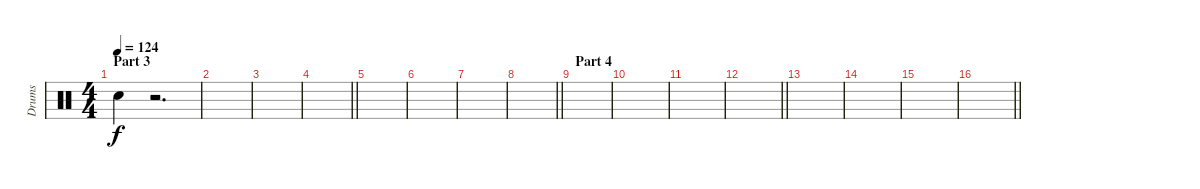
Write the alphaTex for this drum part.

\track ("Drums" "Drums") {instrument percussion}
\staff {score}
\articulation defaults
\ts (4 4)
\section ("" "Part 3")
\tempo 124
\clef neutral
\ks c "Snare (hit) 2".4{dy f}
r.2{d} |
|
|
\barLineRight lightlight
|
\section ("" "")
|
|
|
\barLineRight lightlight
|
\section ("" "Part 4")
|
|
|
\barLineRight lightlight
|
\section ("" "")
|
|
|
\barLineRight lightlight
